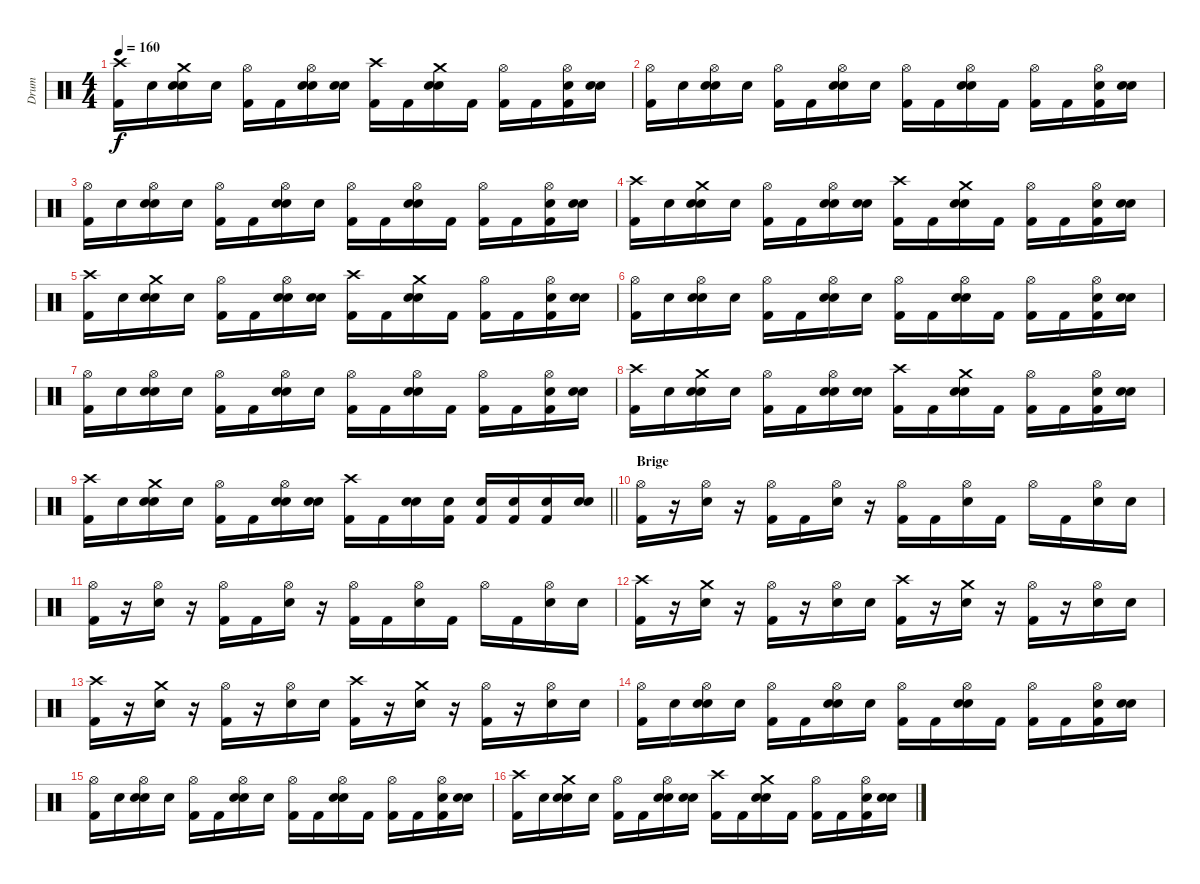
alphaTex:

\track ("Drum" "Drum") {instrument percussion}
\staff {score}
\articulation defaults
\ts (4 4)
\tempo 160
\clef neutral
\ks c
("Crash high (hit)" "Kick (hit) 2").16{dy f} "Snare (hit)"{x}.16 ("Crash medium (hit)" "Electric Snare (hit)" "Snare (hit)"{x}).16 "Snare (hit)"{x}.16 ("Hi-Hat (open)" "Kick (hit) 2").16 "Kick (hit) 2".16 ("Hi-Hat (open)" "Electric Snare (hit)" "Snare (hit)"{x}).16 ("Electric Snare (hit)" "Snare (hit)"{x}).16 ("Crash high (hit)" "Kick (hit) 2").16 "Kick (hit) 2".16 ("Crash medium (hit)" "Electric Snare (hit)" "Snare (hit)"{x}).16 "Kick (hit) 2".16 ("Hi-Hat (open)" "Kick (hit) 2"{x}).16 "Kick (hit) 2".16 ("Hi-Hat (open)" "Electric Snare (hit)" "Kick (hit) 2"{x}).16 ("Electric Snare (hit)" "Snare (hit)"{x}).16 |
("Hi-Hat (open)" "Kick (hit) 2").16 "Snare (hit)"{x}.16 ("Hi-Hat (open)" "Electric Snare (hit)" "Snare (hit)"{x}).16 "Snare (hit)"{x}.16 ("Hi-Hat (open)" "Kick (hit) 2").16 "Kick (hit) 2".16 ("Hi-Hat (open)" "Electric Snare (hit)" "Snare (hit)"{x}).16 "Snare (hit)"{x}.16 ("Hi-Hat (open)" "Kick (hit) 2").16 "Kick (hit) 2".16 ("Hi-Hat (open)" "Electric Snare (hit)" "Snare (hit)"{x}).16 "Kick (hit) 2".16 ("Hi-Hat (open)" "Kick (hit) 2"{x}).16 "Kick (hit) 2".16 ("Hi-Hat (open)" "Electric Snare (hit)" "Kick (hit) 2"{x}).16 ("Electric Snare (hit)" "Snare (hit)"{x}).16 |
("Hi-Hat (open)" "Kick (hit) 2").16 "Snare (hit)"{x}.16 ("Hi-Hat (open)" "Electric Snare (hit)" "Snare (hit)"{x}).16 "Snare (hit)"{x}.16 ("Hi-Hat (open)" "Kick (hit) 2").16 "Kick (hit) 2".16 ("Hi-Hat (open)" "Electric Snare (hit)" "Snare (hit)"{x}).16 "Snare (hit)"{x}.16 ("Hi-Hat (open)" "Kick (hit) 2").16 "Kick (hit) 2".16 ("Hi-Hat (open)" "Electric Snare (hit)" "Snare (hit)"{x}).16 "Kick (hit) 2".16 ("Hi-Hat (open)" "Kick (hit) 2"{x}).16 "Kick (hit) 2".16 ("Hi-Hat (open)" "Electric Snare (hit)" "Kick (hit) 2"{x}).16 ("Electric Snare (hit)" "Snare (hit)"{x}).16 |
("Crash high (hit)" "Kick (hit) 2").16 "Snare (hit)"{x}.16 ("Crash medium (hit)" "Electric Snare (hit)" "Snare (hit)"{x}).16 "Snare (hit)"{x}.16 ("Hi-Hat (open)" "Kick (hit) 2").16 "Kick (hit) 2"{x}.16 ("Hi-Hat (open)" "Electric Snare (hit)" "Snare (hit)"{x}).16 ("Electric Snare (hit)" "Snare (hit)"{x}).16 ("Crash high (hit)" "Kick (hit) 2").16 "Kick (hit) 2"{x}.16 ("Crash medium (hit)" "Electric Snare (hit)" "Snare (hit)"{x}).16 "Kick (hit) 2"{x}.16 ("Hi-Hat (open)" "Kick (hit) 2").16 "Kick (hit) 2"{x}.16 ("Hi-Hat (open)" "Electric Snare (hit)" "Kick (hit) 2"{x}).16 ("Electric Snare (hit)" "Snare (hit)"{x}).16 |
("Crash high (hit)" "Kick (hit) 2").16 "Snare (hit)"{x}.16 ("Crash medium (hit)" "Electric Snare (hit)" "Snare (hit)"{x}).16 "Snare (hit)"{x}.16 ("Hi-Hat (open)" "Kick (hit) 2").16 "Kick (hit) 2".16 ("Hi-Hat (open)" "Electric Snare (hit)" "Snare (hit)"{x}).16 ("Electric Snare (hit)" "Snare (hit)"{x}).16 ("Crash high (hit)" "Kick (hit) 2").16 "Kick (hit) 2".16 ("Crash medium (hit)" "Electric Snare (hit)" "Snare (hit)"{x}).16 "Kick (hit) 2".16 ("Hi-Hat (open)" "Kick (hit) 2"{x}).16 "Kick (hit) 2".16 ("Hi-Hat (open)" "Electric Snare (hit)" "Kick (hit) 2"{x}).16 ("Electric Snare (hit)" "Snare (hit)"{x}).16 |
("Hi-Hat (open)" "Kick (hit) 2").16 "Snare (hit)"{x}.16 ("Hi-Hat (open)" "Electric Snare (hit)" "Snare (hit)"{x}).16 "Snare (hit)"{x}.16 ("Hi-Hat (open)" "Kick (hit) 2").16 "Kick (hit) 2".16 ("Hi-Hat (open)" "Electric Snare (hit)" "Snare (hit)"{x}).16 "Snare (hit)"{x}.16 ("Hi-Hat (open)" "Kick (hit) 2").16 "Kick (hit) 2".16 ("Hi-Hat (open)" "Electric Snare (hit)" "Snare (hit)"{x}).16 "Kick (hit) 2".16 ("Hi-Hat (open)" "Kick (hit) 2"{x}).16 "Kick (hit) 2".16 ("Hi-Hat (open)" "Electric Snare (hit)" "Kick (hit) 2"{x}).16 ("Electric Snare (hit)" "Snare (hit)"{x}).16 |
("Hi-Hat (open)" "Kick (hit) 2").16 "Snare (hit)"{x}.16 ("Hi-Hat (open)" "Electric Snare (hit)" "Snare (hit)"{x}).16 "Snare (hit)"{x}.16 ("Hi-Hat (open)" "Kick (hit) 2").16 "Kick (hit) 2".16 ("Hi-Hat (open)" "Electric Snare (hit)" "Snare (hit)"{x}).16 "Snare (hit)"{x}.16 ("Hi-Hat (open)" "Kick (hit) 2").16 "Kick (hit) 2".16 ("Hi-Hat (open)" "Electric Snare (hit)" "Snare (hit)"{x}).16 "Kick (hit) 2".16 ("Hi-Hat (open)" "Kick (hit) 2"{x}).16 "Kick (hit) 2".16 ("Hi-Hat (open)" "Electric Snare (hit)" "Kick (hit) 2"{x}).16 ("Electric Snare (hit)" "Snare (hit)"{x}).16 |
("Crash high (hit)" "Kick (hit) 2").16 "Snare (hit)"{x}.16 ("Crash medium (hit)" "Electric Snare (hit)" "Snare (hit)"{x}).16 "Snare (hit)"{x}.16 ("Hi-Hat (open)" "Kick (hit) 2").16 "Kick (hit) 2"{x}.16 ("Hi-Hat (open)" "Electric Snare (hit)" "Snare (hit)"{x}).16 ("Electric Snare (hit)" "Snare (hit)"{x}).16 ("Crash high (hit)" "Kick (hit) 2").16 "Kick (hit) 2"{x}.16 ("Crash medium (hit)" "Electric Snare (hit)" "Snare (hit)"{x}).16 "Kick (hit) 2"{x}.16 ("Hi-Hat (open)" "Kick (hit) 2").16 "Kick (hit) 2"{x}.16 ("Hi-Hat (open)" "Electric Snare (hit)" "Kick (hit) 2"{x}).16 ("Electric Snare (hit)" "Snare (hit)"{x}).16 |
\barLineRight lightlight
("Crash high (hit)" "Kick (hit) 2").16 "Snare (hit)"{x}.16 ("Crash medium (hit)" "Electric Snare (hit)" "Snare (hit)"{x}).16 "Snare (hit)"{x}.16 ("Hi-Hat (open)" "Kick (hit) 2").16 "Kick (hit) 2".16 ("Hi-Hat (open)" "Electric Snare (hit)" "Snare (hit)"{x}).16 ("Electric Snare (hit)" "Snare (hit)"{x}).16 ("Crash high (hit)" "Kick (hit) 2").16 "Kick (hit) 2".16 ("Electric Snare (hit)" "Snare (hit)"{x}).16 ("Electric Snare (hit)" "Kick (hit) 2").16 ("Electric Snare (hit)" "Kick (hit) 2"{x}).16 ("Electric Snare (hit)" "Kick (hit) 2").16 ("Electric Snare (hit)" "Kick (hit) 2"{x}).16 ("Electric Snare (hit)" "Snare (hit)"{x}).16 |
\section ("" "Brige")
("Hi-Hat (open)" "Kick (hit) 2").16 r.16 ("Hi-Hat (open)" "Electric Snare (hit)").16 r.16 ("Hi-Hat (open)" "Kick (hit) 2").16 "Kick (hit) 2".16 ("Hi-Hat (open)" "Electric Snare (hit)").16 r.16 ("Hi-Hat (open)" "Kick (hit) 2").16 "Kick (hit) 2".16 ("Hi-Hat (open)" "Electric Snare (hit)").16 "Kick (hit) 2".16 "Hi-Hat (open)".16 "Kick (hit) 2".16 ("Hi-Hat (open)" "Electric Snare (hit)").16 "Electric Snare (hit)".16 |
("Hi-Hat (open)" "Kick (hit) 2").16 r.16 ("Hi-Hat (open)" "Electric Snare (hit)").16 r.16 ("Hi-Hat (open)" "Kick (hit) 2").16 "Kick (hit) 2".16 ("Hi-Hat (open)" "Electric Snare (hit)").16 r.16 ("Hi-Hat (open)" "Kick (hit) 2").16 "Kick (hit) 2".16 ("Hi-Hat (open)" "Electric Snare (hit)").16 "Kick (hit) 2".16 "Hi-Hat (open)".16 "Kick (hit) 2".16 ("Hi-Hat (open)" "Electric Snare (hit)").16 "Electric Snare (hit)".16 |
("Crash high (hit)" "Kick (hit) 2").16 r.16 ("Crash medium (hit)" "Electric Snare (hit)").16 r.16 ("Hi-Hat (open)" "Kick (hit) 2").16 r.16 ("Hi-Hat (open)" "Electric Snare (hit)").16 "Electric Snare (hit)".16 ("Crash high (hit)" "Kick (hit) 2").16 r.16 ("Crash medium (hit)" "Electric Snare (hit)").16 r.16 ("Hi-Hat (open)" "Kick (hit) 2").16 r.16 ("Hi-Hat (open)" "Electric Snare (hit)").16 "Electric Snare (hit)".16 |
("Crash high (hit)" "Kick (hit) 2").16 r.16 ("Crash medium (hit)" "Electric Snare (hit)").16 r.16 ("Hi-Hat (open)" "Kick (hit) 2").16 r.16 ("Hi-Hat (open)" "Electric Snare (hit)").16 "Electric Snare (hit)".16 ("Crash high (hit)" "Kick (hit) 2").16 r.16 ("Crash medium (hit)" "Electric Snare (hit)").16 r.16 ("Hi-Hat (open)" "Kick (hit) 2").16 r.16 ("Hi-Hat (open)" "Electric Snare (hit)").16 "Electric Snare (hit)".16 |
("Hi-Hat (open)" "Kick (hit) 2").16 "Snare (hit)"{x}.16 ("Hi-Hat (open)" "Electric Snare (hit)" "Snare (hit)"{x}).16 "Snare (hit)"{x}.16 ("Hi-Hat (open)" "Kick (hit) 2").16 "Kick (hit) 2".16 ("Hi-Hat (open)" "Electric Snare (hit)" "Snare (hit)"{x}).16 "Snare (hit)"{x}.16 ("Hi-Hat (open)" "Kick (hit) 2").16 "Kick (hit) 2".16 ("Hi-Hat (open)" "Electric Snare (hit)" "Snare (hit)"{x}).16 "Kick (hit) 2".16 ("Hi-Hat (open)" "Kick (hit) 2"{x}).16 "Kick (hit) 2".16 ("Hi-Hat (open)" "Electric Snare (hit)" "Kick (hit) 2"{x}).16 ("Electric Snare (hit)" "Snare (hit)"{x}).16 |
("Hi-Hat (open)" "Kick (hit) 2").16 "Snare (hit)"{x}.16 ("Hi-Hat (open)" "Electric Snare (hit)" "Snare (hit)"{x}).16 "Snare (hit)"{x}.16 ("Hi-Hat (open)" "Kick (hit) 2").16 "Kick (hit) 2".16 ("Hi-Hat (open)" "Electric Snare (hit)" "Snare (hit)"{x}).16 "Snare (hit)"{x}.16 ("Hi-Hat (open)" "Kick (hit) 2").16 "Kick (hit) 2".16 ("Hi-Hat (open)" "Electric Snare (hit)" "Snare (hit)"{x}).16 "Kick (hit) 2".16 ("Hi-Hat (open)" "Kick (hit) 2"{x}).16 "Kick (hit) 2".16 ("Hi-Hat (open)" "Electric Snare (hit)" "Kick (hit) 2"{x}).16 ("Electric Snare (hit)" "Snare (hit)"{x}).16 |
("Crash high (hit)" "Kick (hit) 2").16 "Snare (hit)"{x}.16 ("Crash medium (hit)" "Electric Snare (hit)" "Snare (hit)"{x}).16 "Snare (hit)"{x}.16 ("Hi-Hat (open)" "Kick (hit) 2").16 "Kick (hit) 2"{x}.16 ("Hi-Hat (open)" "Electric Snare (hit)" "Snare (hit)"{x}).16 ("Electric Snare (hit)" "Snare (hit)"{x}).16 ("Crash high (hit)" "Kick (hit) 2").16 "Kick (hit) 2"{x}.16 ("Crash medium (hit)" "Electric Snare (hit)" "Snare (hit)"{x}).16 "Kick (hit) 2"{x}.16 ("Hi-Hat (open)" "Kick (hit) 2").16 "Kick (hit) 2"{x}.16 ("Hi-Hat (open)" "Electric Snare (hit)" "Kick (hit) 2"{x}).16 ("Electric Snare (hit)" "Snare (hit)"{x}).16
